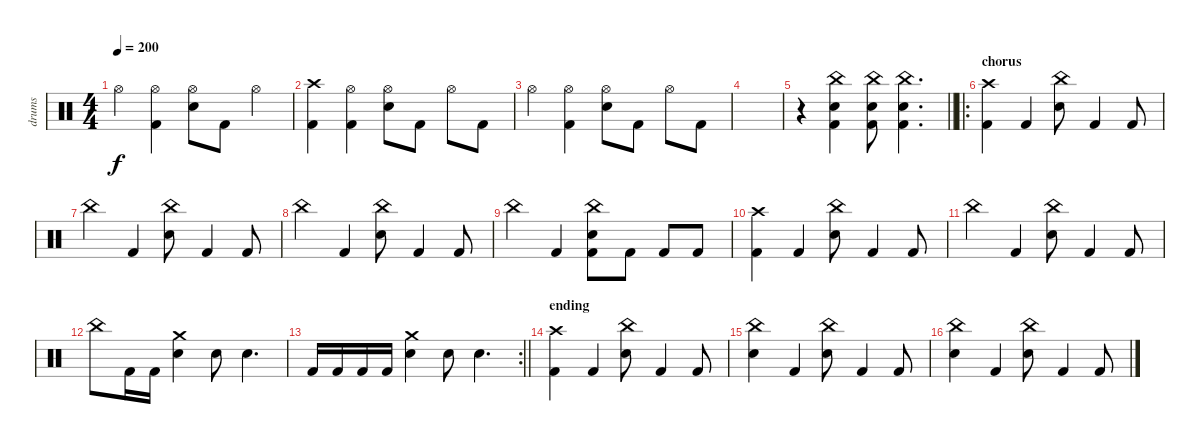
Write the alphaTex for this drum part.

\track ("drums" "drums") {instrument percussion}
\staff {score}
\articulation defaults
\ts (4 4)
\tempo 200
\clef neutral
\ks c "Hi-Hat (open)".4{dy f}
("Hi-Hat (open)" "Kick (hit) 2").4 ("Hi-Hat (open)" "Electric Snare (hit)").8 "Kick (hit) 2".8 "Hi-Hat (open)".4 |
("Crash high (hit)" "Kick (hit) 2").4 ("Hi-Hat (open)" "Kick (hit) 2").4 ("Hi-Hat (open)" "Electric Snare (hit)").8 "Kick (hit) 2".8 "Hi-Hat (open)".8 "Kick (hit) 2".8 |
"Hi-Hat (open)".4 ("Hi-Hat (open)" "Kick (hit) 2").4 ("Hi-Hat (open)" "Electric Snare (hit)").8 "Kick (hit) 2".8 "Hi-Hat (open)".8 "Kick (hit) 2".8 |
|
\barLineRight lightlight
r.4 ("China (hit)" "Electric Snare (hit)" "Kick (hit) 2").4 ("China (hit)" "Electric Snare (hit)" "Kick (hit) 2").8 ("China (hit)" "Electric Snare (hit)" "Kick (hit) 2").4{d} |
\ro
\section ("" "chorus")
("Crash high (hit)" "Kick (hit) 2").4 "Kick (hit) 2".4 ("China (hit)" "Electric Snare (hit)").8 "Kick (hit) 2".4 "Kick (hit) 2".8 |
"China (hit)".4 "Kick (hit) 2".4 ("China (hit)" "Electric Snare (hit)").8 "Kick (hit) 2".4 "Kick (hit) 2".8 |
"China (hit)".4 "Kick (hit) 2".4 ("China (hit)" "Electric Snare (hit)").8 "Kick (hit) 2".4 "Kick (hit) 2".8 |
"China (hit)".4 "Kick (hit) 2".4 ("China (hit)" "Electric Snare (hit)" "Kick (hit) 2").8 "Kick (hit) 2".8 "Kick (hit) 2".8 "Kick (hit) 2".8 |
("Crash high (hit)" "Kick (hit) 2").4 "Kick (hit) 2".4 ("China (hit)" "Electric Snare (hit)").8 "Kick (hit) 2".4 "Kick (hit) 2".8 |
"China (hit)".4 "Kick (hit) 2".4 ("China (hit)" "Electric Snare (hit)").8 "Kick (hit) 2".4 "Kick (hit) 2".8 |
"China (hit)".8 "Kick (hit) 2".16 "Kick (hit) 2".16 ("Crash medium (hit)" "Electric Snare (hit)").4 "Electric Snare (hit)".8 "Electric Snare (hit)".4{d} |
\rc 2
\barLineRight lightlight "Kick (hit) 2".16 "Kick (hit) 2".16 "Kick (hit) 2".16 "Kick (hit) 2".16
("Crash medium (hit)" "Electric Snare (hit)").4 "Electric Snare (hit)".8 "Electric Snare (hit)".4{d} |
\section ("" "ending")
("Crash high (hit)" "Kick (hit) 2").4 "Kick (hit) 2".4 ("China (hit)" "Electric Snare (hit)").8 "Kick (hit) 2".4 "Kick (hit) 2".8 |
("China (hit)" "Electric Snare (hit)").4 "Kick (hit) 2".4 ("China (hit)" "Electric Snare (hit)").8 "Kick (hit) 2".4 "Kick (hit) 2".8 |
("China (hit)" "Electric Snare (hit)").4 "Kick (hit) 2".4 ("China (hit)" "Electric Snare (hit)").8 "Kick (hit) 2".4 "Kick (hit) 2".8
